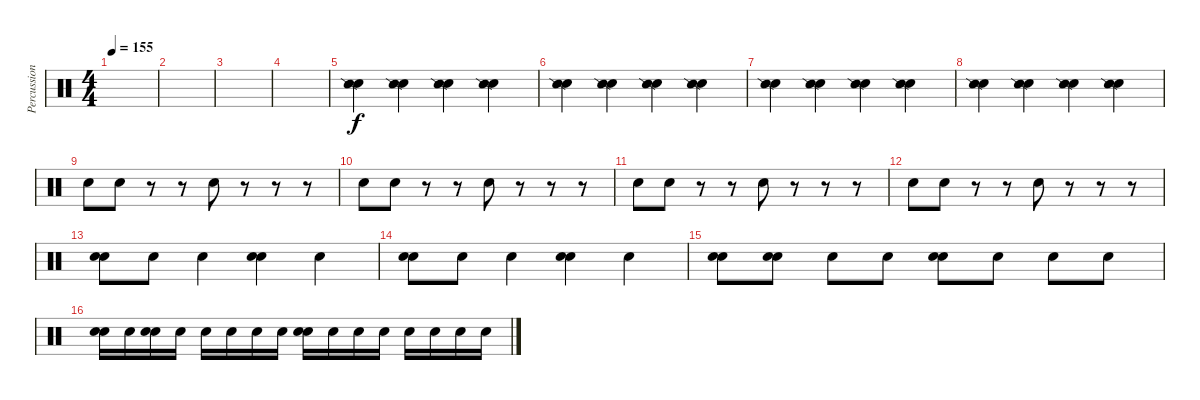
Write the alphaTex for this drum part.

\track ("Percussion" "Percussion") {instrument percussion}
\staff {score}
\articulation defaults
\ts (4 4)
\tempo 155
\clef neutral
\ks c
|
|
|
|
("Hand Clap (hit)" "Snare (side stick) 2").4 ("Hand Clap (hit)" "Snare (side stick) 2").4 ("Hand Clap (hit)" "Snare (side stick) 2").4 ("Hand Clap (hit)" "Snare (side stick) 2").4 |
("Hand Clap (hit)" "Snare (side stick) 2").4 ("Hand Clap (hit)" "Snare (side stick) 2").4 ("Hand Clap (hit)" "Snare (side stick) 2").4 ("Hand Clap (hit)" "Snare (side stick) 2").4 |
("Hand Clap (hit)" "Snare (side stick) 2").4 ("Hand Clap (hit)" "Snare (side stick) 2").4 ("Hand Clap (hit)" "Snare (side stick) 2").4 ("Hand Clap (hit)" "Snare (side stick) 2").4 |
("Hand Clap (hit)" "Snare (side stick) 2").4 ("Hand Clap (hit)" "Snare (side stick) 2").4 ("Hand Clap (hit)" "Snare (side stick) 2").4 ("Hand Clap (hit)" "Snare (side stick) 2").4 |
"Electric Snare (hit)".8 "Electric Snare (hit)".8 r.8 r.8 "Electric Snare (hit)".8 r.8 r.8 r.8 |
"Electric Snare (hit)".8 "Electric Snare (hit)".8 r.8 r.8 "Electric Snare (hit)".8 r.8 r.8 r.8 |
"Electric Snare (hit)".8 "Electric Snare (hit)".8 r.8 r.8 "Electric Snare (hit)".8 r.8 r.8 r.8 |
"Hand Clap (hit)".8 "Hand Clap (hit)".8 r.8 r.8 "Hand Clap (hit)".8 r.8 r.8 r.8 |
("Hand Clap (hit)" "Snare (hit) 2").8 "Hand Clap (hit)".8 "Snare (hit) 2".4 ("Hand Clap (hit)" "Snare (hit) 2").4 "Snare (hit) 2".4 |
("Hand Clap (hit)" "Snare (hit) 2").8 "Hand Clap (hit)".8 "Snare (hit) 2".4 ("Hand Clap (hit)" "Snare (hit) 2").4 "Snare (hit) 2".4 |
("Hand Clap (hit)" "Snare (hit) 2").8 ("Hand Clap (hit)" "Snare (hit) 2").8 "Snare (hit) 2".8 "Snare (hit) 2".8 ("Hand Clap (hit)" "Snare (hit) 2").8 "Snare (hit) 2".8 "Snare (hit) 2".8 "Snare (hit) 2".8 |
("Hand Clap (hit)" "Snare (hit) 2").16 "Snare (hit) 2".16 ("Hand Clap (hit)" "Snare (hit) 2").16 "Snare (hit) 2".16 "Snare (hit) 2".16 "Snare (hit) 2".16 "Snare (hit) 2".16 "Snare (hit) 2".16 ("Hand Clap (hit)" "Snare (hit) 2").16 "Snare (hit) 2".16 "Snare (hit) 2".16 "Snare (hit) 2".16 "Snare (hit) 2".16 "Snare (hit) 2".16 "Snare (hit) 2".16 "Snare (hit) 2".16
